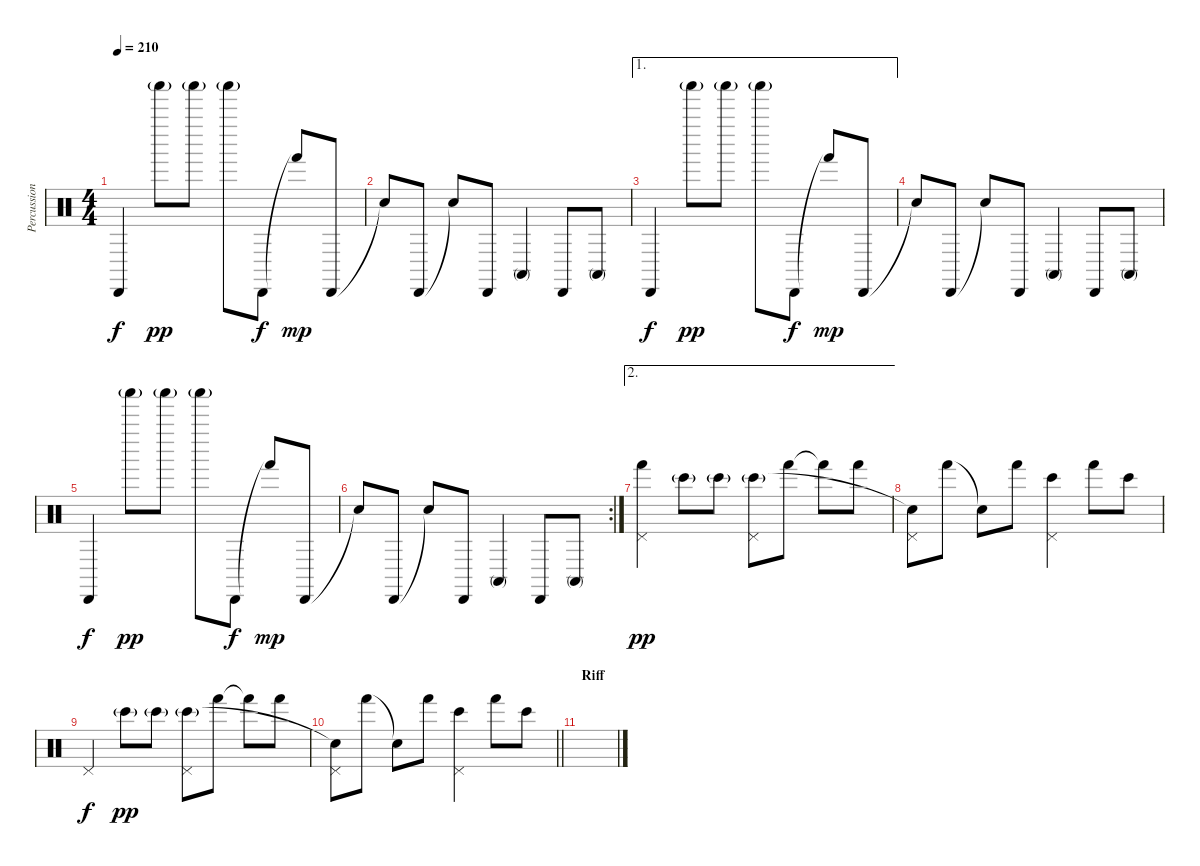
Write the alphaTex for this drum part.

\track ("Percussion" "Percussion") {instrument percussion}
\staff {score}
\articulation defaults
\ts (4 4)
\tempo 210
\clef neutral
\ks c "Cabasa (hit)".4{dy f} "Shaker (hit)"{g}.8{dy pp} "Shaker (hit)"{g}.8 "Shaker (hit)"{g}.8 "Cabasa (hit)".8{dy f} "Hand (hit)"{t}.8{dy mp} "Cabasa (hit)".8
|
"Snare (hit)"{t}.8 "Cabasa (hit)".8 "Snare (hit)"{t}.8 "Cabasa (hit)".8 "Conga high (mute)".4 "Cabasa (hit)".8 "Conga high (mute)".8 |
\ae 1 "Cabasa (hit)".4{dy f} "Shaker (hit)"{g}.8{dy pp} "Shaker (hit)"{g}.8 "Shaker (hit)"{g}.8 "Cabasa (hit)".8{dy f} "Hand (hit)"{t}.8{dy mp} "Cabasa (hit)".8
|
"Snare (hit)"{t}.8 "Cabasa (hit)".8 "Snare (hit)"{t}.8 "Cabasa (hit)".8 "Conga high (mute)".4 "Cabasa (hit)".8 "Conga high (mute)".8 |
"Cabasa (hit)".4{dy f} "Shaker (hit)"{g}.8{dy pp} "Shaker (hit)"{g}.8 "Shaker (hit)"{g}.8 "Cabasa (hit)".8{dy f} "Hand (hit)"{t}.8{dy mp} "Cabasa (hit)".8 |
\rc 2 "Snare (hit)"{t}.8 "Cabasa (hit)".8 "Snare (hit)"{t}.8 "Cabasa (hit)".8 "Conga high (mute)".4 "Cabasa (hit)".8 "Conga high (mute)".8
|
\ae 2
("Pedal Hi-Hat (hit)" "Hand (hit)").4{dy pp} "Bongo High (hit)"{g}.8 "Bongo High (hit)"{g}.8 ("Pedal Hi-Hat (hit)" "Bongo High (hit)"{g}).8 "Hand (hit)".8 "Hand (hit)"{t}.8 "Hand (hit)".8 |
("Pedal Hi-Hat (hit)" "Snare (hit)"{t}).8 "Hand (hit)".8 "Snare (hit)"{t}.8 "Hand (hit)".8 ("Pedal Hi-Hat (hit)" "Bongo High (hit)").4 "Hand (hit)".8 "Bongo High (hit)".8 |
"Pedal Hi-Hat (hit)".4{dy f} "Bongo High (hit)"{g}.8{dy pp} "Bongo High (hit)"{g}.8 ("Pedal Hi-Hat (hit)" "Bongo High (hit)"{g}).8 "Hand (hit)".8 "Hand (hit)"{t}.8 "Hand (hit)".8 |
\barLineRight lightlight
("Pedal Hi-Hat (hit)" "Snare (hit)"{t}).8 "Hand (hit)".8 "Snare (hit)"{t}.8 "Hand (hit)".8 ("Pedal Hi-Hat (hit)" "Bongo High (hit)").4 "Hand (hit)".8 "Bongo High (hit)".8 |
\section ("" "Riff")
